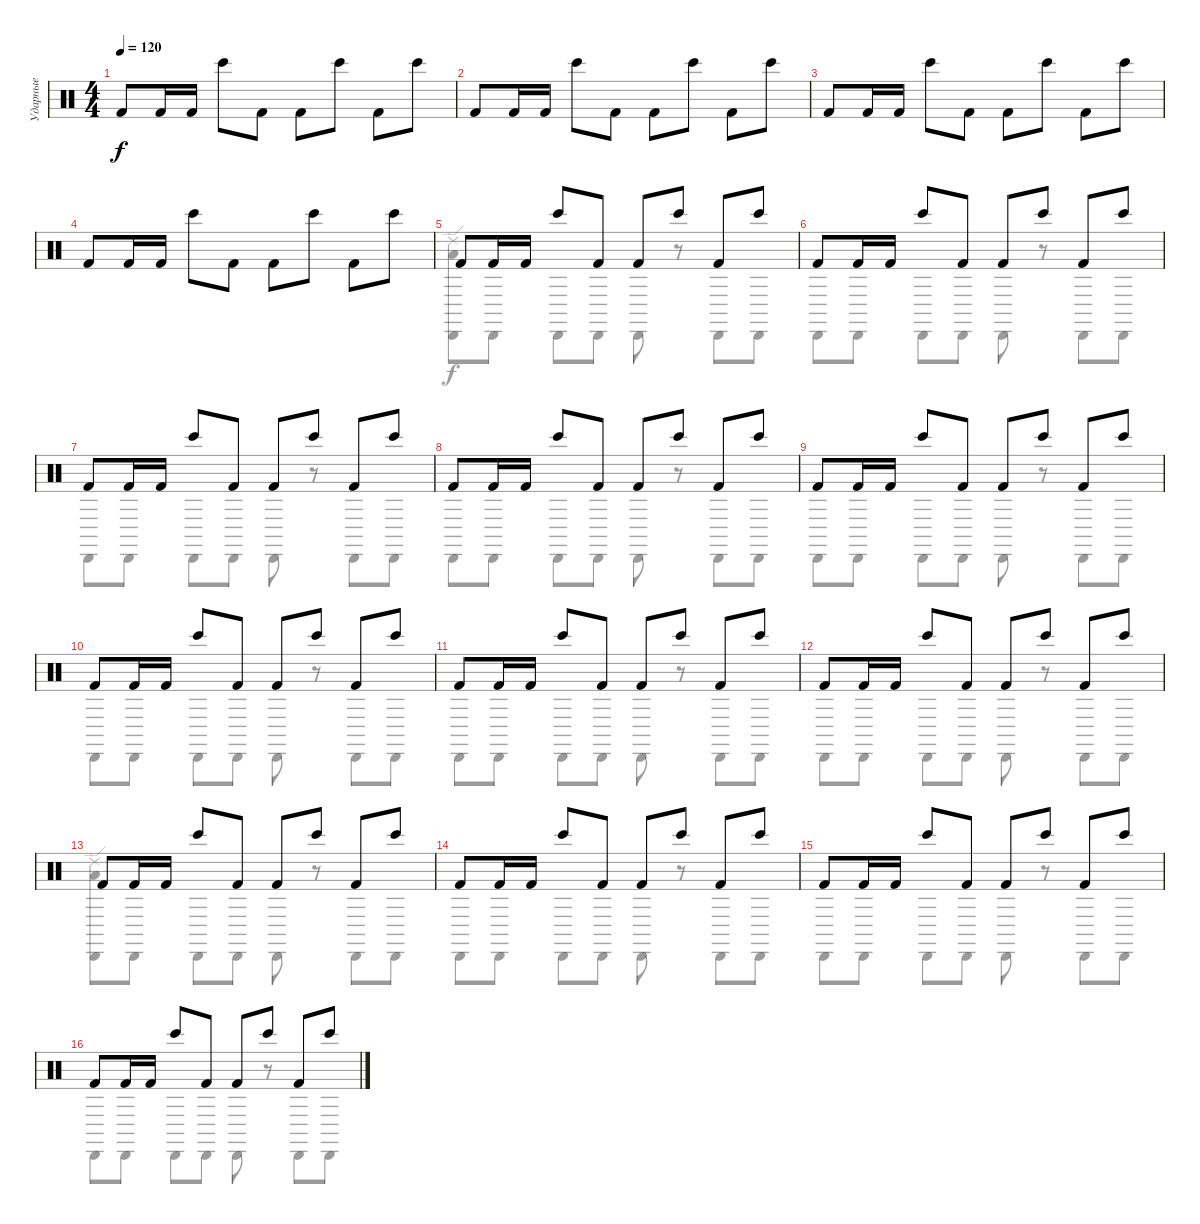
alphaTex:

\track ("Ударные" "Ударные") {instrument percussion}
\staff {score}
\articulation defaults
\voice
\ts (4 4)
\tempo 120
\clef neutral
\ks c "Kick (hit) 2".8{dy f} "Kick (hit) 2".16 "Kick (hit) 2".16 "Bongo High (hit)".8 "Kick (hit) 2".8 "Kick (hit) 2".8 "Bongo High (hit)".8 "Kick (hit) 2".8 "Bongo High (hit)".8
|
"Kick (hit) 2".8 "Kick (hit) 2".16 "Kick (hit) 2".16 "Bongo High (hit)".8 "Kick (hit) 2".8 "Kick (hit) 2".8 "Bongo High (hit)".8 "Kick (hit) 2".8 "Bongo High (hit)".8 |
"Kick (hit) 2".8 "Kick (hit) 2".16 "Kick (hit) 2".16 "Bongo High (hit)".8 "Kick (hit) 2".8 "Kick (hit) 2".8 "Bongo High (hit)".8 "Kick (hit) 2".8 "Bongo High (hit)".8 |
"Kick (hit) 2".8 "Kick (hit) 2".16 "Kick (hit) 2".16 "Bongo High (hit)".8 "Kick (hit) 2".8 "Kick (hit) 2".8 "Bongo High (hit)".8 "Kick (hit) 2".8 "Bongo High (hit)".8 |
"Kick (hit) 2".8 "Kick (hit) 2".16 "Kick (hit) 2".16 "Bongo High (hit)".8 "Kick (hit) 2".8 "Kick (hit) 2".8 "Bongo High (hit)".8 "Kick (hit) 2".8 "Bongo High (hit)".8 |
"Kick (hit) 2".8 "Kick (hit) 2".16 "Kick (hit) 2".16 "Bongo High (hit)".8 "Kick (hit) 2".8 "Kick (hit) 2".8 "Bongo High (hit)".8 "Kick (hit) 2".8 "Bongo High (hit)".8 |
"Kick (hit) 2".8 "Kick (hit) 2".16 "Kick (hit) 2".16 "Bongo High (hit)".8 "Kick (hit) 2".8 "Kick (hit) 2".8 "Bongo High (hit)".8 "Kick (hit) 2".8 "Bongo High (hit)".8 |
"Kick (hit) 2".8 "Kick (hit) 2".16 "Kick (hit) 2".16 "Bongo High (hit)".8 "Kick (hit) 2".8 "Kick (hit) 2".8 "Bongo High (hit)".8 "Kick (hit) 2".8 "Bongo High (hit)".8 |
"Kick (hit) 2".8 "Kick (hit) 2".16 "Kick (hit) 2".16 "Bongo High (hit)".8 "Kick (hit) 2".8 "Kick (hit) 2".8 "Bongo High (hit)".8 "Kick (hit) 2".8 "Bongo High (hit)".8 |
"Kick (hit) 2".8 "Kick (hit) 2".16 "Kick (hit) 2".16 "Bongo High (hit)".8 "Kick (hit) 2".8 "Kick (hit) 2".8 "Bongo High (hit)".8 "Kick (hit) 2".8 "Bongo High (hit)".8 |
"Kick (hit) 2".8 "Kick (hit) 2".16 "Kick (hit) 2".16 "Bongo High (hit)".8 "Kick (hit) 2".8 "Kick (hit) 2".8 "Bongo High (hit)".8 "Kick (hit) 2".8 "Bongo High (hit)".8 |
"Kick (hit) 2".8 "Kick (hit) 2".16 "Kick (hit) 2".16 "Bongo High (hit)".8 "Kick (hit) 2".8 "Kick (hit) 2".8 "Bongo High (hit)".8 "Kick (hit) 2".8 "Bongo High (hit)".8 |
"Kick (hit) 2".8 "Kick (hit) 2".16 "Kick (hit) 2".16 "Bongo High (hit)".8 "Kick (hit) 2".8 "Kick (hit) 2".8 "Bongo High (hit)".8 "Kick (hit) 2".8 "Bongo High (hit)".8 |
"Kick (hit) 2".8 "Kick (hit) 2".16 "Kick (hit) 2".16 "Bongo High (hit)".8 "Kick (hit) 2".8 "Kick (hit) 2".8 "Bongo High (hit)".8 "Kick (hit) 2".8 "Bongo High (hit)".8 |
"Kick (hit) 2".8 "Kick (hit) 2".16 "Kick (hit) 2".16 "Bongo High (hit)".8 "Kick (hit) 2".8 "Kick (hit) 2".8 "Bongo High (hit)".8 "Kick (hit) 2".8 "Bongo High (hit)".8 |
"Kick (hit) 2".8 "Kick (hit) 2".16 "Kick (hit) 2".16 "Bongo High (hit)".8 "Kick (hit) 2".8 "Kick (hit) 2".8 "Bongo High (hit)".8 "Kick (hit) 2".8 "Bongo High (hit)".8
\voice
\clef neutral
\ottava regular
\simile none
\ks c
|
|
|
|
("Cabasa (hit)" "Ride (edge) 2" "Low Tom (hit)").8 "Cabasa (hit)".8 "Cabasa (hit)".8 "Cabasa (hit)".8 "Cabasa (hit)".8 r.8 "Cabasa (hit)".8 "Cabasa (hit)".8 |
"Cabasa (hit)".8 "Cabasa (hit)".8 "Cabasa (hit)".8 "Cabasa (hit)".8 "Cabasa (hit)".8 r.8 "Cabasa (hit)".8 "Cabasa (hit)".8 |
"Cabasa (hit)".8 "Cabasa (hit)".8 "Cabasa (hit)".8 "Cabasa (hit)".8 "Cabasa (hit)".8 r.8 "Cabasa (hit)".8 "Cabasa (hit)".8 |
"Cabasa (hit)".8 "Cabasa (hit)".8 "Cabasa (hit)".8 "Cabasa (hit)".8 "Cabasa (hit)".8 r.8 "Cabasa (hit)".8 "Cabasa (hit)".8 |
"Cabasa (hit)".8 "Cabasa (hit)".8 "Cabasa (hit)".8 "Cabasa (hit)".8 "Cabasa (hit)".8 r.8 "Cabasa (hit)".8 "Cabasa (hit)".8 |
"Cabasa (hit)".8 "Cabasa (hit)".8 "Cabasa (hit)".8 "Cabasa (hit)".8 "Cabasa (hit)".8 r.8 "Cabasa (hit)".8 "Cabasa (hit)".8 |
"Cabasa (hit)".8 "Cabasa (hit)".8 "Cabasa (hit)".8 "Cabasa (hit)".8 "Cabasa (hit)".8 r.8 "Cabasa (hit)".8 "Cabasa (hit)".8 |
"Cabasa (hit)".8 "Cabasa (hit)".8 "Cabasa (hit)".8 "Cabasa (hit)".8 "Cabasa (hit)".8 r.8 "Cabasa (hit)".8 "Cabasa (hit)".8 |
("Cabasa (hit)" "Ride (edge) 2" "Low Tom (hit)").8 "Cabasa (hit)".8 "Cabasa (hit)".8 "Cabasa (hit)".8 "Cabasa (hit)".8 r.8 "Cabasa (hit)".8 "Cabasa (hit)".8 |
"Cabasa (hit)".8 "Cabasa (hit)".8 "Cabasa (hit)".8 "Cabasa (hit)".8 "Cabasa (hit)".8 r.8 "Cabasa (hit)".8 "Cabasa (hit)".8 |
"Cabasa (hit)".8 "Cabasa (hit)".8 "Cabasa (hit)".8 "Cabasa (hit)".8 "Cabasa (hit)".8 r.8 "Cabasa (hit)".8 "Cabasa (hit)".8 |
"Cabasa (hit)".8 "Cabasa (hit)".8 "Cabasa (hit)".8 "Cabasa (hit)".8 "Cabasa (hit)".8 r.8 "Cabasa (hit)".8 "Cabasa (hit)".8
